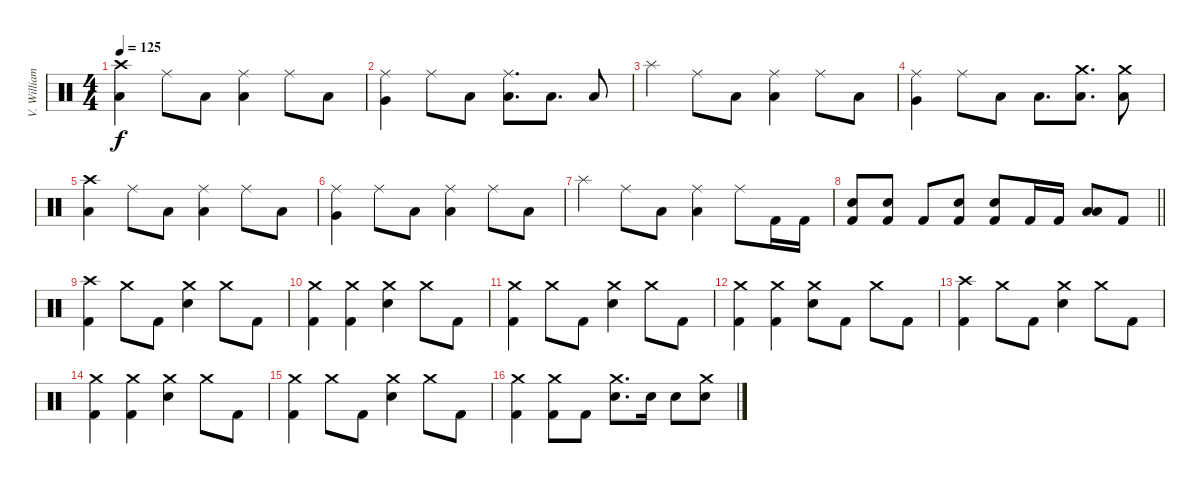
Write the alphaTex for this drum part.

\track ("V. Williams (Drums)" "V. William") {instrument percussion}
\staff {score}
\articulation defaults
\ts (4 4)
\section ("" "")
\tempo 125
\clef neutral
\ks c
("Crash high (hit)" "Low Tom (hit)").4{dy f} "Ride (middle)".8 "Low Tom (hit)".8 ("Ride (middle)" "Low Tom (hit)").4 "Ride (middle)".8 "Low Floor Tom (hit)".8 |
("Ride (middle)" "Very Low Tom (hit)").4 "Ride (middle)".8 "Low Tom (hit)".8 ("Ride (middle)" "Low Tom (hit)").8{d} "Low Tom (hit)".8{d} "Low Tom (hit)".8 |
"Splash (hit)".4 "Ride (middle)".8 "Low Tom (hit)".8 ("Ride (middle)" "Low Tom (hit)").4 "Ride (middle)".8 "Low Floor Tom (hit)".8 |
("Ride (middle)" "Very Low Tom (hit)").4 "Ride (middle)".8 "Low Tom (hit)".8 "Low Tom (hit)".8{d} ("Crash medium (hit)" "Low Tom (hit)").8{d} ("Crash medium (hit)" "Low Tom (hit)").8 |
("Crash high (hit)" "Low Tom (hit)").4 "Ride (middle)".8 "Low Tom (hit)".8 ("Ride (middle)" "Low Tom (hit)").4 "Ride (middle)".8 "Low Floor Tom (hit)".8 |
("Ride (middle)" "Very Low Tom (hit)").4 "Ride (middle)".8 "Low Tom (hit)".8 ("Ride (middle)" "Low Tom (hit)").4 "Ride (middle)".8 "Low Floor Tom (hit)".8 |
"Splash (hit)".4 "Ride (middle)".8 "Low Tom (hit)".8 ("Ride (middle)" "Low Tom (hit)").4 "Ride (middle)".8 "Kick (hit) 2".16 "Kick (hit) 2".16 |
\barLineRight lightlight
("Electric Snare (hit)" "Kick (hit) 2").8 ("Electric Snare (hit)" "Kick (hit) 2").8 "Kick (hit) 2".8 ("Electric Snare (hit)" "Kick (hit) 2").8 ("Electric Snare (hit)" "Kick (hit) 2").8 "Kick (hit) 2".16 "Kick (hit) 2".16 ("Low Tom (hit)" "Low Floor Tom (hit)").8 "Kick (hit) 2".8 |
\section ("" "")
("Crash high (hit)" "Kick (hit) 2").4 "Crash medium (hit)".8 "Kick (hit) 2".8 ("Crash medium (hit)" "Electric Snare (hit)").4 "Crash medium (hit)".8 "Kick (hit) 2".8 |
("Crash medium (hit)" "Kick (hit) 2").4 ("Crash medium (hit)" "Kick (hit) 2").4 ("Crash medium (hit)" "Electric Snare (hit)").4 "Crash medium (hit)".8 "Kick (hit) 2".8 |
("Crash medium (hit)" "Kick (hit) 2").4 "Crash medium (hit)".8 "Kick (hit) 2".8 ("Crash medium (hit)" "Electric Snare (hit)").4 "Crash medium (hit)".8 "Kick (hit) 2".8 |
("Crash medium (hit)" "Kick (hit) 2").4 ("Crash medium (hit)" "Kick (hit) 2").4 ("Crash medium (hit)" "Electric Snare (hit)").8 "Kick (hit) 2".8 "Crash medium (hit)".8 "Kick (hit) 2".8 |
("Crash high (hit)" "Kick (hit) 2").4 "Crash medium (hit)".8 "Kick (hit) 2".8 ("Crash medium (hit)" "Electric Snare (hit)").4 "Crash medium (hit)".8 "Kick (hit) 2".8 |
("Crash medium (hit)" "Kick (hit) 2").4 ("Crash medium (hit)" "Kick (hit) 2").4 ("Crash medium (hit)" "Electric Snare (hit)").4 "Crash medium (hit)".8 "Kick (hit) 2".8 |
("Crash medium (hit)" "Kick (hit) 2").4 "Crash medium (hit)".8 "Kick (hit) 2".8 ("Crash medium (hit)" "Electric Snare (hit)").4 "Crash medium (hit)".8 "Kick (hit) 2".8 |
("Crash medium (hit)" "Kick (hit) 2").4 ("Crash medium (hit)" "Kick (hit) 2").8 "Kick (hit) 2".8 ("Crash medium (hit)" "Electric Snare (hit)").8{d} "Electric Snare (hit)".16 "Electric Snare (hit)".8 ("Crash medium (hit)" "Electric Snare (hit)").8
